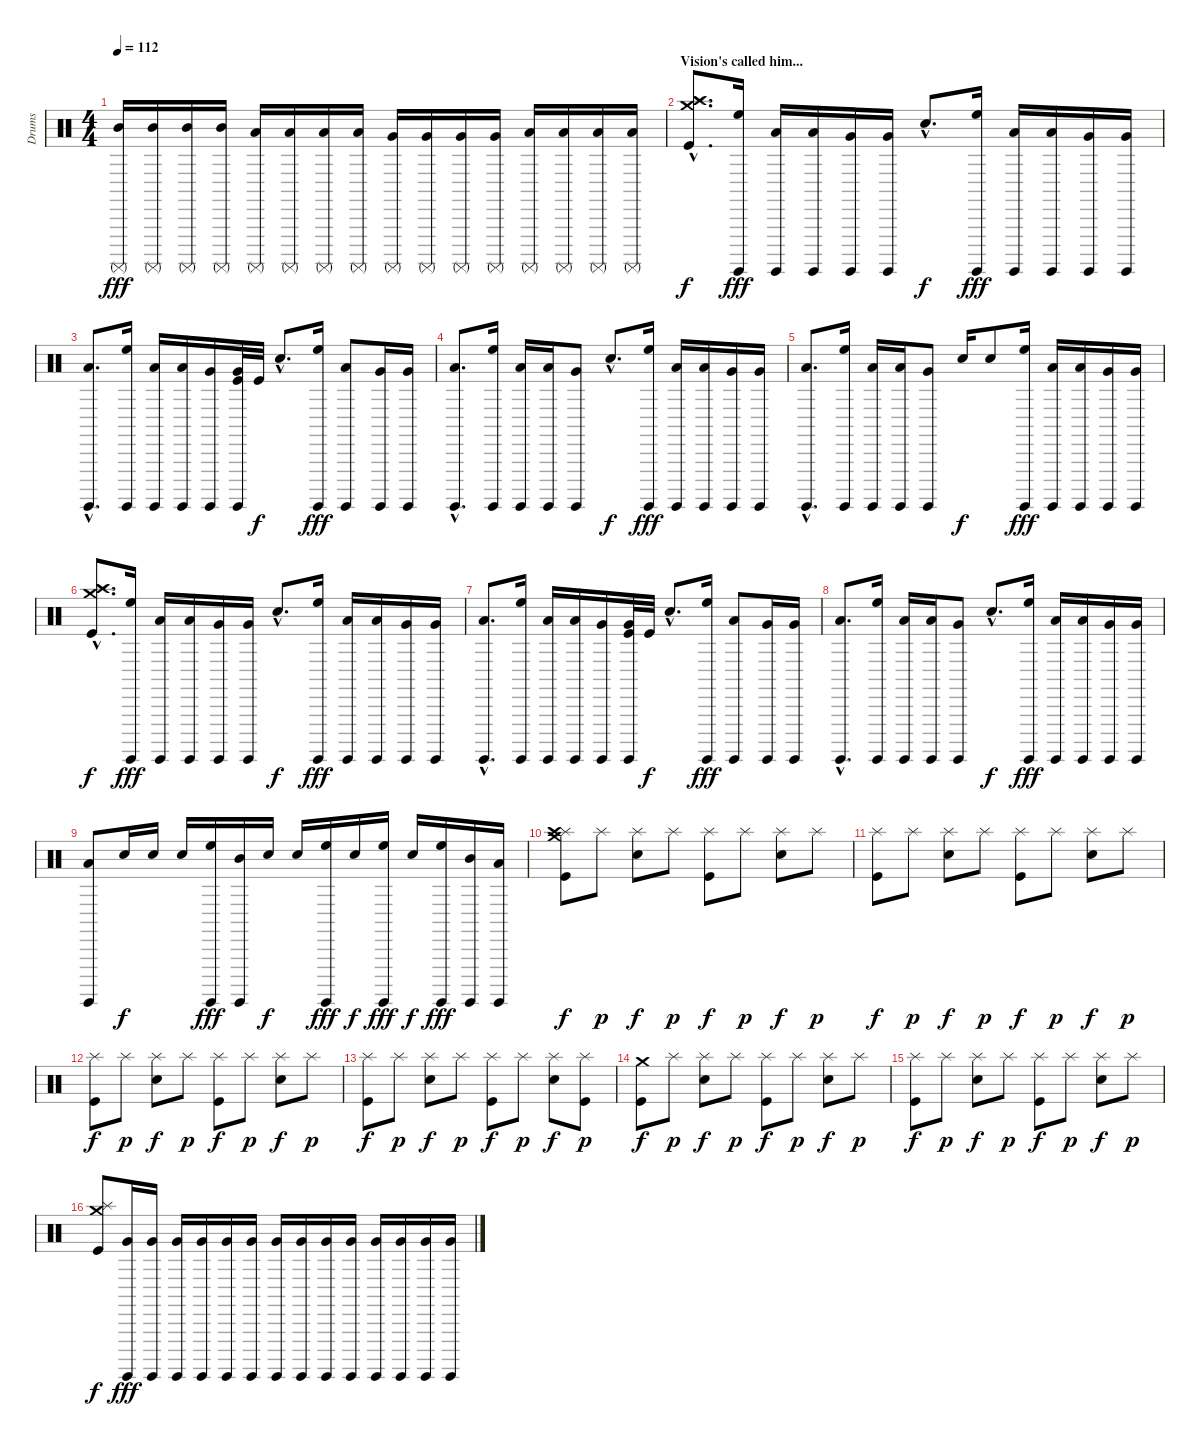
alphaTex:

\track ("Drums" "Drums") {instrument percussion}
\staff {score}
\articulation defaults
\ts (4 4)
\tempo 112
\clef neutral
\ks c
("Surdo (mute)" "Mid Tom (hit)").16{dy fff} ("Surdo (mute)" "Mid Tom (hit)").16 ("Surdo (mute)" "Mid Tom (hit)").16 ("Surdo (mute)" "Mid Tom (hit)").16 ("Surdo (mute)" "Low Tom (hit)").16 ("Surdo (mute)" "Low Tom (hit)").16 ("Surdo (mute)" "Low Tom (hit)").16 ("Surdo (mute)" "Low Tom (hit)").16 ("Surdo (mute)" "Very Low Tom (hit)").16 ("Surdo (mute)" "Very Low Tom (hit)").16 ("Surdo (mute)" "Very Low Tom (hit)").16 ("Surdo (mute)" "Very Low Tom (hit)").16 ("Surdo (mute)" "Low Floor Tom (hit)").16 ("Surdo (mute)" "Low Floor Tom (hit)").16 ("Surdo (mute)" "Low Floor Tom (hit)").16 ("Surdo (mute)" "Low Floor Tom (hit)").16 |
\section ("" "Vision's called him...")
("Crash medium (hit)"{hac} "Splash (hit)"{hac} "Crash high (hit)"{hac} "Kick (hit)"{hac}).8{d dy f} ("Surdo (hit)" "High Floor Tom (hit)").16{dy fff} ("Surdo (hit)" "Low Tom (hit)").16 ("Surdo (hit)" "Low Tom (hit)").16 ("Surdo (hit)" "Very Low Tom (hit)").16 ("Surdo (hit)" "Very Low Tom (hit)").16 "Electric Snare (hit)"{hac}.8{d dy f} ("Surdo (hit)" "High Floor Tom (hit)").16{dy fff} ("Surdo (hit)" "Low Tom (hit)").16 ("Surdo (hit)" "Low Tom (hit)").16 ("Surdo (hit)" "Very Low Tom (hit)").16 ("Surdo (hit)" "Very Low Tom (hit)").16 |
("Surdo (hit)"{hac} "Low Floor Tom (hit)"{hac}).8{d} ("Surdo (hit)" "High Floor Tom (hit)").16 ("Surdo (hit)" "Low Tom (hit)").16 ("Surdo (hit)" "Low Tom (hit)").16 ("Surdo (hit)" "Very Low Tom (hit)").16 ("Surdo (hit)" "Very Low Tom (hit)" "Kick (hit)").32 "Kick (hit)".32{dy f} "Electric Snare (hit)"{hac}.8{d} ("Surdo (hit)" "High Floor Tom (hit)").16{dy fff} ("Surdo (hit)" "Low Tom (hit)").8 ("Surdo (hit)" "Very Low Tom (hit)").16 ("Surdo (hit)" "Very Low Tom (hit)").16 |
("Surdo (hit)"{hac} "Low Floor Tom (hit)"{hac}).8{d} ("Surdo (hit)" "High Floor Tom (hit)").16 ("Surdo (hit)" "Low Tom (hit)").16 ("Surdo (hit)" "Low Tom (hit)").16 ("Surdo (hit)" "Very Low Tom (hit)").8 "Electric Snare (hit)"{hac}.8{d dy f} ("Surdo (hit)" "High Floor Tom (hit)").16{dy fff} ("Surdo (hit)" "Low Tom (hit)").16 ("Surdo (hit)" "Low Tom (hit)").16 ("Surdo (hit)" "Very Low Tom (hit)").16 ("Surdo (hit)" "Very Low Tom (hit)").16 |
("Surdo (hit)"{hac} "Low Floor Tom (hit)"{hac}).8{d} ("Surdo (hit)" "High Floor Tom (hit)").16 ("Surdo (hit)" "Low Tom (hit)").16 ("Surdo (hit)" "Low Tom (hit)").16 ("Surdo (hit)" "Very Low Tom (hit)").8 "Electric Snare (hit)".16{dy f} "Electric Snare (hit)".8 ("Surdo (hit)" "High Floor Tom (hit)").16{dy fff} ("Surdo (hit)" "Low Tom (hit)").16 ("Surdo (hit)" "Low Tom (hit)").16 ("Surdo (hit)" "Very Low Tom (hit)").16 ("Surdo (hit)" "Very Low Tom (hit)").16 |
("Crash medium (hit)"{hac} "Splash (hit)"{hac} "Crash high (hit)"{hac} "Kick (hit)"{hac}).8{d dy f} ("Surdo (hit)" "High Floor Tom (hit)").16{dy fff} ("Surdo (hit)" "Low Tom (hit)").16 ("Surdo (hit)" "Low Tom (hit)").16 ("Surdo (hit)" "Very Low Tom (hit)").16 ("Surdo (hit)" "Very Low Tom (hit)").16 "Electric Snare (hit)"{hac}.8{d dy f} ("Surdo (hit)" "High Floor Tom (hit)").16{dy fff} ("Surdo (hit)" "Low Tom (hit)").16 ("Surdo (hit)" "Low Tom (hit)").16 ("Surdo (hit)" "Very Low Tom (hit)").16 ("Surdo (hit)" "Very Low Tom (hit)").16 |
("Surdo (hit)"{hac} "Low Floor Tom (hit)"{hac}).8{d} ("Surdo (hit)" "High Floor Tom (hit)").16 ("Surdo (hit)" "Low Tom (hit)").16 ("Surdo (hit)" "Low Tom (hit)").16 ("Surdo (hit)" "Very Low Tom (hit)").16 ("Surdo (hit)" "Very Low Tom (hit)" "Kick (hit)").32 "Kick (hit)".32{dy f} "Electric Snare (hit)"{hac}.8{d} ("Surdo (hit)" "High Floor Tom (hit)").16{dy fff} ("Surdo (hit)" "Low Tom (hit)").8 ("Surdo (hit)" "Very Low Tom (hit)").16 ("Surdo (hit)" "Very Low Tom (hit)").16 |
("Surdo (hit)"{hac} "Low Floor Tom (hit)"{hac}).8{d} ("Surdo (hit)" "High Floor Tom (hit)").16 ("Surdo (hit)" "Low Tom (hit)").16 ("Surdo (hit)" "Low Tom (hit)").16 ("Surdo (hit)" "Very Low Tom (hit)").8 "Electric Snare (hit)"{hac}.8{d dy f} ("Surdo (hit)" "High Floor Tom (hit)").16{dy fff} ("Surdo (hit)" "Low Tom (hit)").16 ("Surdo (hit)" "Low Tom (hit)").16 ("Surdo (hit)" "Very Low Tom (hit)").16 ("Surdo (hit)" "Very Low Tom (hit)").16 |
("Surdo (hit)" "Low Floor Tom (hit)").8 "Electric Snare (hit)".16{dy f} "Electric Snare (hit)".16 "Electric Snare (hit)".16 ("Surdo (hit)" "High Floor Tom (hit)").16{dy fff} ("Surdo (hit)" "Mid Tom (hit)").16 "Electric Snare (hit)".16{dy f} "Electric Snare (hit)".16 ("Surdo (hit)" "High Floor Tom (hit)").16{dy fff} "Electric Snare (hit)".16{dy f} ("Surdo (hit)" "High Floor Tom (hit)").16{dy fff} "Electric Snare (hit)".16{dy f} ("Surdo (hit)" "High Floor Tom (hit)").16{dy fff} ("Surdo (hit)" "Mid Tom (hit)").16 ("Surdo (hit)" "Low Tom (hit)").16 |
("Crash medium (hit)" "Splash (hit)" "Crash high (hit)" "Kick (hit)").8{dy f} "Splash (hit)".8{dy p} ("Splash (hit)" "Electric Snare (hit)").8{dy f} "Splash (hit)".8{dy p} ("Splash (hit)" "Kick (hit)").8{dy f} "Splash (hit)".8{dy p} ("Splash (hit)" "Electric Snare (hit)").8{dy f} "Splash (hit)".8{dy p} |
("Splash (hit)" "Kick (hit)").8{dy f} "Splash (hit)".8{dy p} ("Splash (hit)" "Electric Snare (hit)").8{dy f} "Splash (hit)".8{dy p} ("Splash (hit)" "Kick (hit)").8{dy f} "Splash (hit)".8{dy p} ("Splash (hit)" "Electric Snare (hit)").8{dy f} "Splash (hit)".8{dy p} |
("Splash (hit)" "Kick (hit)").8{dy f} "Splash (hit)".8{dy p} ("Splash (hit)" "Electric Snare (hit)").8{dy f} "Splash (hit)".8{dy p} ("Splash (hit)" "Kick (hit)").8{dy f} "Splash (hit)".8{dy p} ("Splash (hit)" "Electric Snare (hit)").8{dy f} "Splash (hit)".8{dy p} |
("Splash (hit)" "Kick (hit)").8{dy f} "Splash (hit)".8{dy p} ("Splash (hit)" "Electric Snare (hit)").8{dy f} "Splash (hit)".8{dy p} ("Splash (hit)" "Kick (hit)").8{dy f} "Splash (hit)".8{dy p} ("Splash (hit)" "Electric Snare (hit)").8{dy f} ("Splash (hit)" "Kick (hit)").8{dy p} |
("Crash medium (hit)" "Kick (hit)").8{dy f} "Splash (hit)".8{dy p} ("Splash (hit)" "Electric Snare (hit)").8{dy f} "Splash (hit)".8{dy p} ("Splash (hit)" "Kick (hit)").8{dy f} "Splash (hit)".8{dy p} ("Splash (hit)" "Electric Snare (hit)").8{dy f} "Splash (hit)".8{dy p} |
("Splash (hit)" "Kick (hit)").8{dy f} "Splash (hit)".8{dy p} ("Splash (hit)" "Electric Snare (hit)").8{dy f} "Splash (hit)".8{dy p} ("Splash (hit)" "Kick (hit)").8{dy f} "Splash (hit)".8{dy p} ("Splash (hit)" "Electric Snare (hit)").8{dy f} "Splash (hit)".8{dy p} |
("Crash medium (hit)" "Splash (hit)" "Kick (hit)").8{dy f} ("Surdo (hit)" "Very Low Tom (hit)").16{dy fff} ("Surdo (hit)" "Very Low Tom (hit)").16 ("Surdo (hit)" "Very Low Tom (hit)").16 ("Surdo (hit)" "Very Low Tom (hit)").16 ("Surdo (hit)" "Very Low Tom (hit)").16 ("Surdo (hit)" "Very Low Tom (hit)").16 ("Surdo (hit)" "Very Low Tom (hit)").16 ("Surdo (hit)" "Very Low Tom (hit)").16 ("Surdo (hit)" "Very Low Tom (hit)").16 ("Surdo (hit)" "Very Low Tom (hit)").16 ("Surdo (hit)" "Very Low Tom (hit)").16 ("Surdo (hit)" "Very Low Tom (hit)").16 ("Surdo (hit)" "Very Low Tom (hit)").16 ("Surdo (hit)" "Very Low Tom (hit)").16
